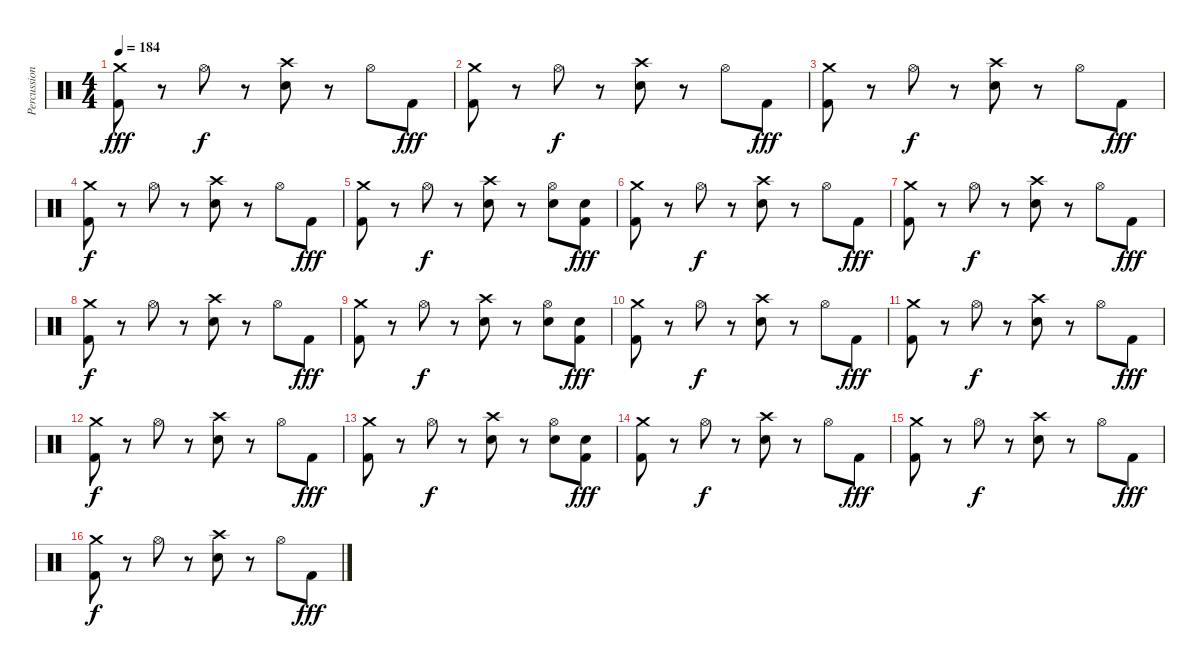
\track ("Percussion" "Percussion") {instrument percussion}
\staff {score}
\articulation defaults
\ts (4 4)
\tempo 184
\clef neutral
\ks c
("Crash medium (hit)" "Kick (hit) 2").8{dy fff} r.8 "Hi-Hat (open)".8{dy f} r.8 ("Crash high (hit)" "Snare (hit) 2").8 r.8 "Hi-Hat (open)".8 "Kick (hit) 2".8{dy fff} |
("Crash medium (hit)" "Kick (hit) 2").8 r.8 "Hi-Hat (open)".8{dy f} r.8 ("Crash high (hit)" "Snare (hit) 2").8 r.8 "Hi-Hat (open)".8 "Kick (hit) 2".8{dy fff} |
("Crash medium (hit)" "Kick (hit) 2").8 r.8 "Hi-Hat (open)".8{dy f} r.8 ("Crash high (hit)" "Snare (hit) 2").8 r.8 "Hi-Hat (open)".8 "Kick (hit) 2".8{dy fff} |
("Crash medium (hit)" "Kick (hit) 2").8{dy f} r.8 "Hi-Hat (open)".8 r.8 ("Crash high (hit)" "Snare (hit) 2").8 r.8 "Hi-Hat (open)".8 "Kick (hit) 2".8{dy fff} |
("Crash medium (hit)" "Kick (hit) 2").8 r.8 "Hi-Hat (open)".8{dy f} r.8 ("Crash high (hit)" "Snare (hit) 2").8 r.8 ("Hi-Hat (open)" "Snare (hit) 2").8 ("Snare (hit) 2" "Kick (hit) 2").8{dy fff} |
("Crash medium (hit)" "Kick (hit) 2").8 r.8 "Hi-Hat (open)".8{dy f} r.8 ("Crash high (hit)" "Snare (hit) 2").8 r.8 "Hi-Hat (open)".8 "Kick (hit) 2".8{dy fff} |
("Crash medium (hit)" "Kick (hit) 2").8 r.8 "Hi-Hat (open)".8{dy f} r.8 ("Crash high (hit)" "Snare (hit) 2").8 r.8 "Hi-Hat (open)".8 "Kick (hit) 2".8{dy fff} |
("Crash medium (hit)" "Kick (hit) 2").8{dy f} r.8 "Hi-Hat (open)".8 r.8 ("Crash high (hit)" "Snare (hit) 2").8 r.8 "Hi-Hat (open)".8 "Kick (hit) 2".8{dy fff} |
("Crash medium (hit)" "Kick (hit) 2").8 r.8 "Hi-Hat (open)".8{dy f} r.8 ("Crash high (hit)" "Snare (hit) 2").8 r.8 ("Hi-Hat (open)" "Snare (hit) 2").8 ("Snare (hit) 2" "Kick (hit) 2").8{dy fff} |
("Crash medium (hit)" "Kick (hit) 2").8 r.8 "Hi-Hat (open)".8{dy f} r.8 ("Crash high (hit)" "Snare (hit) 2").8 r.8 "Hi-Hat (open)".8 "Kick (hit) 2".8{dy fff} |
("Crash medium (hit)" "Kick (hit) 2").8 r.8 "Hi-Hat (open)".8{dy f} r.8 ("Crash high (hit)" "Snare (hit) 2").8 r.8 "Hi-Hat (open)".8 "Kick (hit) 2".8{dy fff} |
("Crash medium (hit)" "Kick (hit) 2").8{dy f} r.8 "Hi-Hat (open)".8 r.8 ("Crash high (hit)" "Snare (hit) 2").8 r.8 "Hi-Hat (open)".8 "Kick (hit) 2".8{dy fff} |
("Crash medium (hit)" "Kick (hit) 2").8 r.8 "Hi-Hat (open)".8{dy f} r.8 ("Crash high (hit)" "Snare (hit) 2").8 r.8 ("Hi-Hat (open)" "Snare (hit) 2").8 ("Snare (hit) 2" "Kick (hit) 2").8{dy fff} |
("Crash medium (hit)" "Kick (hit) 2").8 r.8 "Hi-Hat (open)".8{dy f} r.8 ("Crash high (hit)" "Snare (hit) 2").8 r.8 "Hi-Hat (open)".8 "Kick (hit) 2".8{dy fff} |
("Crash medium (hit)" "Kick (hit) 2").8 r.8 "Hi-Hat (open)".8{dy f} r.8 ("Crash high (hit)" "Snare (hit) 2").8 r.8 "Hi-Hat (open)".8 "Kick (hit) 2".8{dy fff} |
("Crash medium (hit)" "Kick (hit) 2").8{dy f} r.8 "Hi-Hat (open)".8 r.8 ("Crash high (hit)" "Snare (hit) 2").8 r.8 "Hi-Hat (open)".8 "Kick (hit) 2".8{dy fff}
